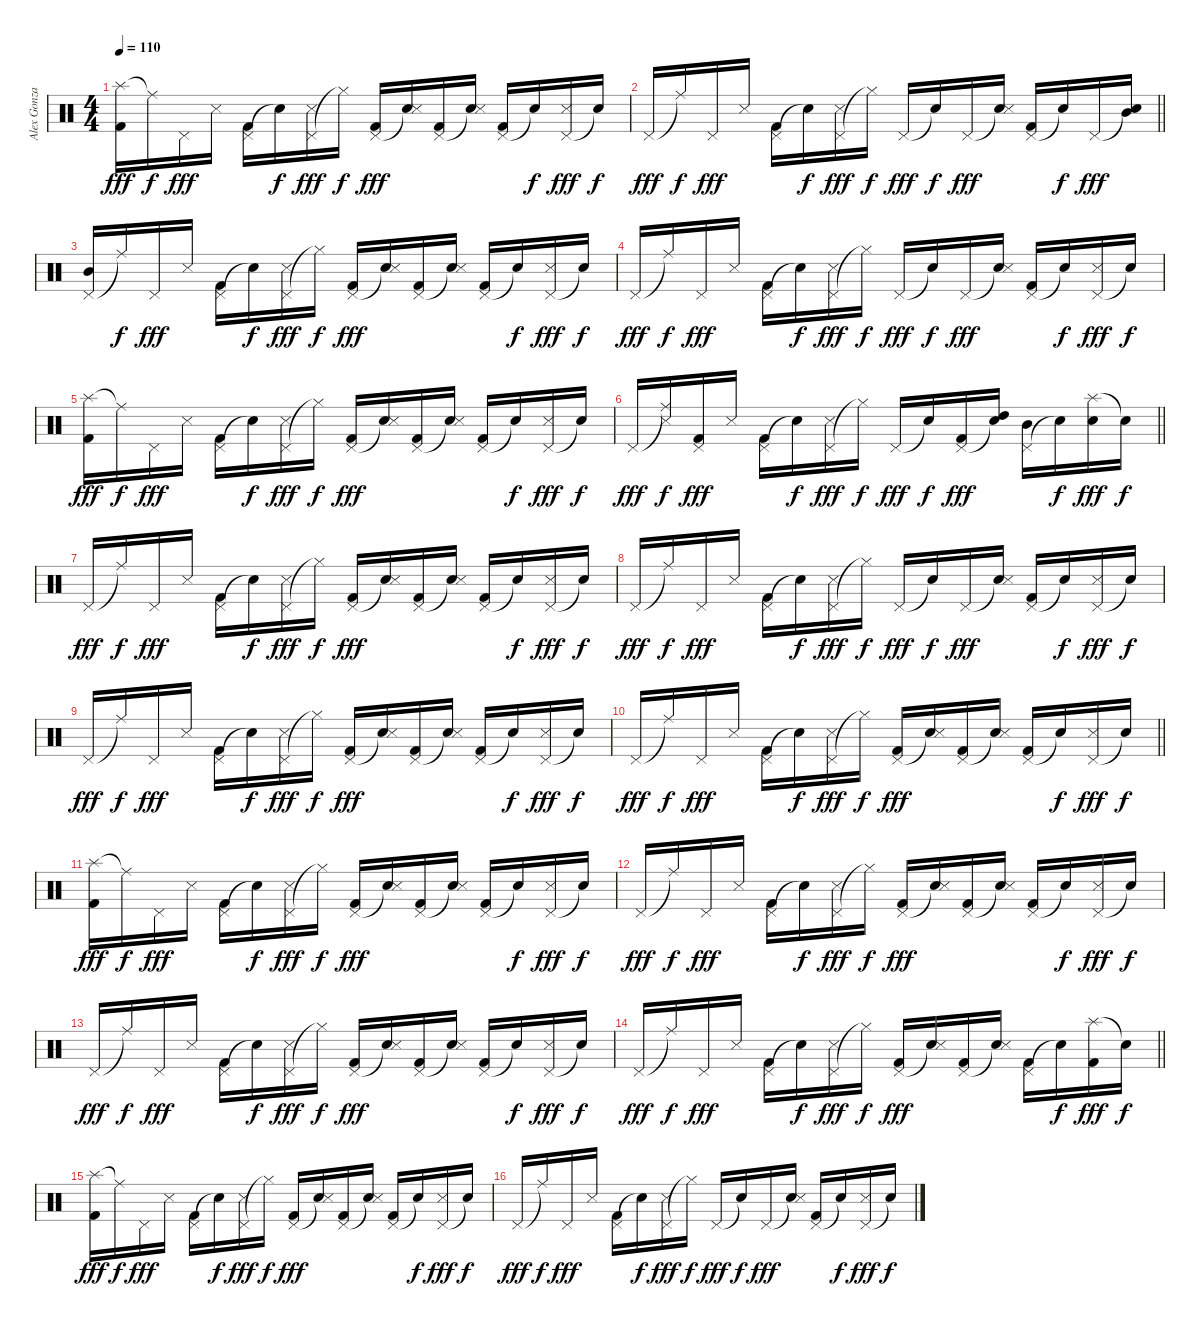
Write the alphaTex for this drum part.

\track ("Alex Gonzalez" "Alex Gonza") {instrument percussion}
\staff {score}
\articulation defaults
\ts (4 4)
\tempo 110
\clef neutral
\ks c
("Splash (hit)" "Kick (hit) 2").16{dy fff} "Ride (middle)"{t}.16{dy f} "Pedal Hi-Hat (hit)".16{dy fff} "Snare (side stick) 3".16 ("Pedal Hi-Hat (hit)" "Kick (hit) 2").16 "Snare (hit)"{t}.16{dy f} ("Pedal Hi-Hat (hit)" "Snare (side stick) 3").16{dy fff} "Hi-Hat (closed)"{t}.16{dy f} ("Pedal Hi-Hat (hit)" "Kick (hit) 2").16{dy fff} ("Snare (hit)"{t} "Snare (side stick) 3").16 ("Pedal Hi-Hat (hit)" "Kick (hit) 2").16 ("Snare (hit)"{t} "Snare (side stick) 3").16 ("Pedal Hi-Hat (hit)" "Kick (hit) 2").16 "Snare (hit)"{t}.16{dy f} ("Pedal Hi-Hat (hit)" "Snare (side stick) 3").16{dy fff} "Snare (hit)"{t}.16{dy f} |
\barLineRight lightlight "Pedal Hi-Hat (hit)".16{dy fff} "Ride (middle)"{t}.16{dy f} "Pedal Hi-Hat (hit)".16{dy fff} "Snare (side stick) 3".16
("Pedal Hi-Hat (hit)" "Kick (hit) 2").16 "Snare (hit)"{t}.16{dy f} ("Pedal Hi-Hat (hit)" "Snare (side stick) 3").16{dy fff} "Hi-Hat (closed)"{t}.16{dy f} "Pedal Hi-Hat (hit)".16{dy fff} "Snare (hit)"{t}.16{dy f} "Pedal Hi-Hat (hit)".16{dy fff} ("Snare (hit)"{t} "Snare (side stick) 3").16 ("Pedal Hi-Hat (hit)" "Kick (hit) 2").16 "Snare (hit)"{t}.16{dy f} "Pedal Hi-Hat (hit)".16{dy fff} ("Snare (hit)"{t} "Mid Tom (hit)").16 |
("Pedal Hi-Hat (hit)" "Mid Tom (hit)").16 "Ride (middle)"{t}.16{dy f} "Pedal Hi-Hat (hit)".16{dy fff} "Snare (side stick) 3".16 ("Pedal Hi-Hat (hit)" "Kick (hit) 2").16 "Snare (hit)"{t}.16{dy f} ("Pedal Hi-Hat (hit)" "Snare (side stick) 3").16{dy fff} "Hi-Hat (closed)"{t}.16{dy f} ("Pedal Hi-Hat (hit)" "Kick (hit) 2").16{dy fff} ("Snare (hit)"{t} "Snare (side stick) 3").16 ("Pedal Hi-Hat (hit)" "Kick (hit) 2").16 ("Snare (hit)"{t} "Snare (side stick) 3").16 ("Pedal Hi-Hat (hit)" "Kick (hit) 2").16 "Snare (hit)"{t}.16{dy f} ("Pedal Hi-Hat (hit)" "Snare (side stick) 3").16{dy fff} "Snare (hit)"{t}.16{dy f} |
"Pedal Hi-Hat (hit)".16{dy fff} "Ride (middle)"{t}.16{dy f} "Pedal Hi-Hat (hit)".16{dy fff} "Snare (side stick) 3".16 ("Pedal Hi-Hat (hit)" "Kick (hit) 2").16 "Snare (hit)"{t}.16{dy f} ("Pedal Hi-Hat (hit)" "Snare (side stick) 3").16{dy fff} "Hi-Hat (closed)"{t}.16{dy f} "Pedal Hi-Hat (hit)".16{dy fff} "Snare (hit)"{t}.16{dy f} "Pedal Hi-Hat (hit)".16{dy fff} ("Snare (hit)"{t} "Snare (side stick) 3").16 ("Pedal Hi-Hat (hit)" "Kick (hit) 2").16 "Snare (hit)"{t}.16{dy f} ("Pedal Hi-Hat (hit)" "Snare (side stick) 3").16{dy fff} "Snare (hit)"{t}.16{dy f} |
("Splash (hit)" "Kick (hit) 2").16{dy fff} "Ride (middle)"{t}.16{dy f} "Pedal Hi-Hat (hit)".16{dy fff} "Snare (side stick) 3".16 ("Pedal Hi-Hat (hit)" "Kick (hit) 2").16 "Snare (hit)"{t}.16{dy f} ("Pedal Hi-Hat (hit)" "Snare (side stick) 3").16{dy fff} "Hi-Hat (closed)"{t}.16{dy f} ("Pedal Hi-Hat (hit)" "Kick (hit) 2").16{dy fff} ("Snare (hit)"{t} "Snare (side stick) 3").16 ("Pedal Hi-Hat (hit)" "Kick (hit) 2").16 ("Snare (hit)"{t} "Snare (side stick) 3").16 ("Pedal Hi-Hat (hit)" "Kick (hit) 2").16 "Snare (hit)"{t}.16{dy f} ("Pedal Hi-Hat (hit)" "Snare (side stick) 3").16{dy fff} "Snare (hit)"{t}.16{dy f} |
\barLineRight lightlight "Pedal Hi-Hat (hit)".16{dy fff}
("Ride (middle)"{t} "Snare (side stick) 3").16{dy f} ("Pedal Hi-Hat (hit)" "Kick (hit) 2").16{dy fff} "Snare (side stick) 3".16 ("Pedal Hi-Hat (hit)" "Kick (hit) 2").16 "Snare (hit)"{t}.16{dy f} ("Pedal Hi-Hat (hit)" "Snare (side stick) 3").16{dy fff} "Hi-Hat (closed)"{t}.16{dy f} "Pedal Hi-Hat (hit)".16{dy fff} "Snare (hit)"{t}.16{dy f} ("Pedal Hi-Hat (hit)" "Kick (hit) 2").16{dy fff} ("Snare (hit)"{t} "High Tom (hit)").16 ("Pedal Hi-Hat (hit)" "Mid Tom (hit)").16 "Snare (hit)"{t}.16{dy f} ("Splash (hit)" "Electric Snare (hit)").16{dy fff} "Snare (hit)"{t}.16{dy f} |
"Pedal Hi-Hat (hit)".16{dy fff} "Ride (middle)"{t}.16{dy f} "Pedal Hi-Hat (hit)".16{dy fff} "Snare (side stick) 3".16 ("Pedal Hi-Hat (hit)" "Kick (hit) 2").16 "Snare (hit)"{t}.16{dy f} ("Pedal Hi-Hat (hit)" "Snare (side stick) 3").16{dy fff} "Hi-Hat (closed)"{t}.16{dy f} ("Pedal Hi-Hat (hit)" "Kick (hit) 2").16{dy fff} ("Snare (hit)"{t} "Snare (side stick) 3").16 ("Pedal Hi-Hat (hit)" "Kick (hit) 2").16 ("Snare (hit)"{t} "Snare (side stick) 3").16 ("Pedal Hi-Hat (hit)" "Kick (hit) 2").16 "Snare (hit)"{t}.16{dy f} ("Pedal Hi-Hat (hit)" "Snare (side stick) 3").16{dy fff} "Snare (hit)"{t}.16{dy f} |
"Pedal Hi-Hat (hit)".16{dy fff} "Ride (middle)"{t}.16{dy f} "Pedal Hi-Hat (hit)".16{dy fff} "Snare (side stick) 3".16 ("Pedal Hi-Hat (hit)" "Kick (hit) 2").16 "Snare (hit)"{t}.16{dy f} ("Pedal Hi-Hat (hit)" "Snare (side stick) 3").16{dy fff} "Hi-Hat (closed)"{t}.16{dy f} "Pedal Hi-Hat (hit)".16{dy fff} "Snare (hit)"{t}.16{dy f} "Pedal Hi-Hat (hit)".16{dy fff} ("Snare (hit)"{t} "Snare (side stick) 3").16 ("Pedal Hi-Hat (hit)" "Kick (hit) 2").16 "Snare (hit)"{t}.16{dy f} ("Pedal Hi-Hat (hit)" "Snare (side stick) 3").16{dy fff} "Snare (hit)"{t}.16{dy f} |
"Pedal Hi-Hat (hit)".16{dy fff} "Ride (middle)"{t}.16{dy f} "Pedal Hi-Hat (hit)".16{dy fff} "Snare (side stick) 3".16 ("Pedal Hi-Hat (hit)" "Kick (hit) 2").16 "Snare (hit)"{t}.16{dy f} ("Pedal Hi-Hat (hit)" "Snare (side stick) 3").16{dy fff} "Hi-Hat (closed)"{t}.16{dy f} ("Pedal Hi-Hat (hit)" "Kick (hit) 2").16{dy fff} ("Snare (hit)"{t} "Snare (side stick) 3").16 ("Pedal Hi-Hat (hit)" "Kick (hit) 2").16 ("Snare (hit)"{t} "Snare (side stick) 3").16 ("Pedal Hi-Hat (hit)" "Kick (hit) 2").16 "Snare (hit)"{t}.16{dy f} ("Pedal Hi-Hat (hit)" "Snare (side stick) 3").16{dy fff} "Snare (hit)"{t}.16{dy f} |
\barLineRight lightlight "Pedal Hi-Hat (hit)".16{dy fff} "Ride (middle)"{t}.16{dy f} "Pedal Hi-Hat (hit)".16{dy fff} "Snare (side stick) 3".16
("Pedal Hi-Hat (hit)" "Kick (hit) 2").16 "Snare (hit)"{t}.16{dy f} ("Pedal Hi-Hat (hit)" "Snare (side stick) 3").16{dy fff} "Hi-Hat (closed)"{t}.16{dy f} ("Pedal Hi-Hat (hit)" "Kick (hit) 2").16{dy fff} ("Snare (hit)"{t} "Snare (side stick) 3").16 ("Pedal Hi-Hat (hit)" "Kick (hit) 2").16 ("Snare (hit)"{t} "Snare (side stick) 3").16 ("Pedal Hi-Hat (hit)" "Kick (hit) 2").16 "Snare (hit)"{t}.16{dy f} ("Pedal Hi-Hat (hit)" "Snare (side stick) 3").16{dy fff} "Snare (hit)"{t}.16{dy f} |
("Splash (hit)" "Kick (hit) 2").16{dy fff} "Ride (middle)"{t}.16{dy f} "Pedal Hi-Hat (hit)".16{dy fff} "Snare (side stick) 3".16 ("Pedal Hi-Hat (hit)" "Kick (hit) 2").16 "Snare (hit)"{t}.16{dy f} ("Pedal Hi-Hat (hit)" "Snare (side stick) 3").16{dy fff} "Hi-Hat (closed)"{t}.16{dy f} ("Pedal Hi-Hat (hit)" "Kick (hit) 2").16{dy fff} ("Snare (hit)"{t} "Snare (side stick) 3").16 ("Pedal Hi-Hat (hit)" "Kick (hit) 2").16 ("Snare (hit)"{t} "Snare (side stick) 3").16 ("Pedal Hi-Hat (hit)" "Kick (hit) 2").16 "Snare (hit)"{t}.16{dy f} ("Pedal Hi-Hat (hit)" "Snare (side stick) 3").16{dy fff} "Snare (hit)"{t}.16{dy f} |
"Pedal Hi-Hat (hit)".16{dy fff} "Ride (middle)"{t}.16{dy f} "Pedal Hi-Hat (hit)".16{dy fff} "Snare (side stick) 3".16 ("Pedal Hi-Hat (hit)" "Kick (hit) 2").16 "Snare (hit)"{t}.16{dy f} ("Pedal Hi-Hat (hit)" "Snare (side stick) 3").16{dy fff} "Hi-Hat (closed)"{t}.16{dy f} ("Pedal Hi-Hat (hit)" "Kick (hit) 2").16{dy fff} ("Snare (hit)"{t} "Snare (side stick) 3").16 ("Pedal Hi-Hat (hit)" "Kick (hit) 2").16 ("Snare (hit)"{t} "Snare (side stick) 3").16 ("Pedal Hi-Hat (hit)" "Kick (hit) 2").16 "Snare (hit)"{t}.16{dy f} ("Pedal Hi-Hat (hit)" "Snare (side stick) 3").16{dy fff} "Snare (hit)"{t}.16{dy f} |
"Pedal Hi-Hat (hit)".16{dy fff} "Ride (middle)"{t}.16{dy f} "Pedal Hi-Hat (hit)".16{dy fff} "Snare (side stick) 3".16 ("Pedal Hi-Hat (hit)" "Kick (hit) 2").16 "Snare (hit)"{t}.16{dy f} ("Pedal Hi-Hat (hit)" "Snare (side stick) 3").16{dy fff} "Hi-Hat (closed)"{t}.16{dy f} ("Pedal Hi-Hat (hit)" "Kick (hit) 2").16{dy fff} ("Snare (hit)"{t} "Snare (side stick) 3").16 ("Pedal Hi-Hat (hit)" "Kick (hit) 2").16 ("Snare (hit)"{t} "Snare (side stick) 3").16 ("Pedal Hi-Hat (hit)" "Kick (hit) 2").16 "Snare (hit)"{t}.16{dy f} ("Pedal Hi-Hat (hit)" "Snare (side stick) 3").16{dy fff} "Snare (hit)"{t}.16{dy f} |
\barLineRight lightlight "Pedal Hi-Hat (hit)".16{dy fff} "Ride (middle)"{t}.16{dy f} "Pedal Hi-Hat (hit)".16{dy fff} "Snare (side stick) 3".16
("Pedal Hi-Hat (hit)" "Kick (hit) 2").16 "Snare (hit)"{t}.16{dy f} ("Pedal Hi-Hat (hit)" "Snare (side stick) 3").16{dy fff} "Hi-Hat (closed)"{t}.16{dy f} ("Pedal Hi-Hat (hit)" "Kick (hit) 2").16{dy fff} ("Snare (hit)"{t} "Snare (side stick) 3").16 ("Pedal Hi-Hat (hit)" "Kick (hit) 2").16 ("Snare (hit)"{t} "Snare (side stick) 3").16 ("Pedal Hi-Hat (hit)" "Kick (hit) 2").16 "Snare (hit)"{t}.16{dy f} ("Splash (hit)" "Kick (hit) 2").16{dy fff} "Snare (hit)"{t}.16{dy f} |
("Splash (hit)" "Kick (hit) 2").16{dy fff} "Ride (middle)"{t}.16{dy f} "Pedal Hi-Hat (hit)".16{dy fff} "Snare (side stick) 3".16 ("Pedal Hi-Hat (hit)" "Kick (hit) 2").16 "Snare (hit)"{t}.16{dy f} ("Pedal Hi-Hat (hit)" "Snare (side stick) 3").16{dy fff} "Hi-Hat (closed)"{t}.16{dy f} ("Pedal Hi-Hat (hit)" "Kick (hit) 2").16{dy fff} ("Snare (hit)"{t} "Snare (side stick) 3").16 ("Pedal Hi-Hat (hit)" "Kick (hit) 2").16 ("Snare (hit)"{t} "Snare (side stick) 3").16 ("Pedal Hi-Hat (hit)" "Kick (hit) 2").16 "Snare (hit)"{t}.16{dy f} ("Pedal Hi-Hat (hit)" "Snare (side stick) 3").16{dy fff} "Snare (hit)"{t}.16{dy f} |
"Pedal Hi-Hat (hit)".16{dy fff} "Ride (middle)"{t}.16{dy f} "Pedal Hi-Hat (hit)".16{dy fff} "Snare (side stick) 3".16 ("Pedal Hi-Hat (hit)" "Kick (hit) 2").16 "Snare (hit)"{t}.16{dy f} ("Pedal Hi-Hat (hit)" "Snare (side stick) 3").16{dy fff} "Hi-Hat (closed)"{t}.16{dy f} "Pedal Hi-Hat (hit)".16{dy fff} "Snare (hit)"{t}.16{dy f} "Pedal Hi-Hat (hit)".16{dy fff} ("Snare (hit)"{t} "Snare (side stick) 3").16 ("Pedal Hi-Hat (hit)" "Kick (hit) 2").16 "Snare (hit)"{t}.16{dy f} ("Pedal Hi-Hat (hit)" "Snare (side stick) 3").16{dy fff} "Snare (hit)"{t}.16{dy f}
